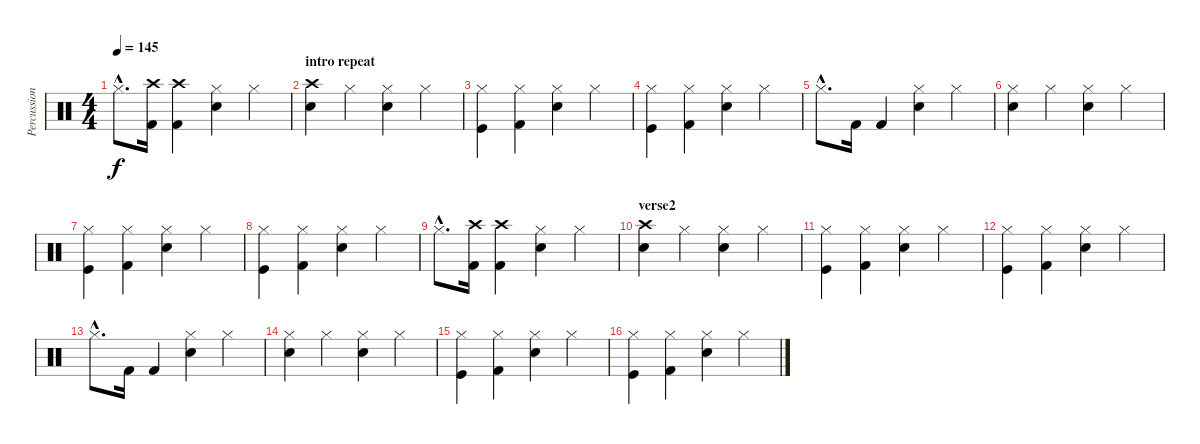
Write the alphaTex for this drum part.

\track ("Percussion" "Percussion") {instrument percussion}
\staff {score}
\articulation defaults
\ts (4 4)
\tempo 145
\clef neutral
\ks c "Hi-Hat (closed)"{hac}.8{d dy f}
("Crash high (hit)" "Kick (hit) 2").16 ("Crash high (hit)" "Kick (hit) 2").4 ("Hi-Hat (closed)" "Snare (hit) 2").4 "Hi-Hat (closed)".4 |
\section ("" "intro repeat")
("Crash high (hit)" "Snare (hit) 2").4 "Hi-Hat (closed)".4 ("Hi-Hat (closed)" "Snare (hit) 2").4 "Hi-Hat (closed)".4 |
("Hi-Hat (closed)" "Kick (hit)").4 ("Hi-Hat (closed)" "Kick (hit) 2").4 ("Hi-Hat (closed)" "Snare (hit) 2").4 "Hi-Hat (closed)".4 |
("Hi-Hat (closed)" "Kick (hit)").4 ("Hi-Hat (closed)" "Kick (hit) 2").4 ("Hi-Hat (closed)" "Snare (hit) 2").4 "Hi-Hat (closed)".4 |
"Hi-Hat (closed)"{hac}.8{d} "Kick (hit) 2".16 "Kick (hit) 2".4 ("Hi-Hat (closed)" "Snare (hit) 2").4 "Hi-Hat (closed)".4 |
("Hi-Hat (closed)" "Snare (hit) 2").4 "Hi-Hat (closed)".4 ("Hi-Hat (closed)" "Snare (hit) 2").4 "Hi-Hat (closed)".4 |
("Hi-Hat (closed)" "Kick (hit)").4 ("Hi-Hat (closed)" "Kick (hit) 2").4 ("Hi-Hat (closed)" "Snare (hit) 2").4 "Hi-Hat (closed)".4 |
("Hi-Hat (closed)" "Kick (hit)").4 ("Hi-Hat (closed)" "Kick (hit) 2").4 ("Hi-Hat (closed)" "Snare (hit) 2").4 "Hi-Hat (closed)".4 |
"Hi-Hat (closed)"{hac}.8{d} ("Crash high (hit)" "Kick (hit) 2").16 ("Crash high (hit)" "Kick (hit) 2").4 ("Hi-Hat (closed)" "Snare (hit) 2").4 "Hi-Hat (closed)".4 |
\section ("" "verse2")
("Crash high (hit)" "Snare (hit) 2").4 "Hi-Hat (closed)".4 ("Hi-Hat (closed)" "Snare (hit) 2").4 "Hi-Hat (closed)".4 |
("Hi-Hat (closed)" "Kick (hit)").4 ("Hi-Hat (closed)" "Kick (hit) 2").4 ("Hi-Hat (closed)" "Snare (hit) 2").4 "Hi-Hat (closed)".4 |
("Hi-Hat (closed)" "Kick (hit)").4 ("Hi-Hat (closed)" "Kick (hit) 2").4 ("Hi-Hat (closed)" "Snare (hit) 2").4 "Hi-Hat (closed)".4 |
"Hi-Hat (closed)"{hac}.8{d} "Kick (hit) 2".16 "Kick (hit) 2".4 ("Hi-Hat (closed)" "Snare (hit) 2").4 "Hi-Hat (closed)".4 |
("Hi-Hat (closed)" "Snare (hit) 2").4 "Hi-Hat (closed)".4 ("Hi-Hat (closed)" "Snare (hit) 2").4 "Hi-Hat (closed)".4 |
("Hi-Hat (closed)" "Kick (hit)").4 ("Hi-Hat (closed)" "Kick (hit) 2").4 ("Hi-Hat (closed)" "Snare (hit) 2").4 "Hi-Hat (closed)".4 |
("Hi-Hat (closed)" "Kick (hit)").4 ("Hi-Hat (closed)" "Kick (hit) 2").4 ("Hi-Hat (closed)" "Snare (hit) 2").4 "Hi-Hat (closed)".4
